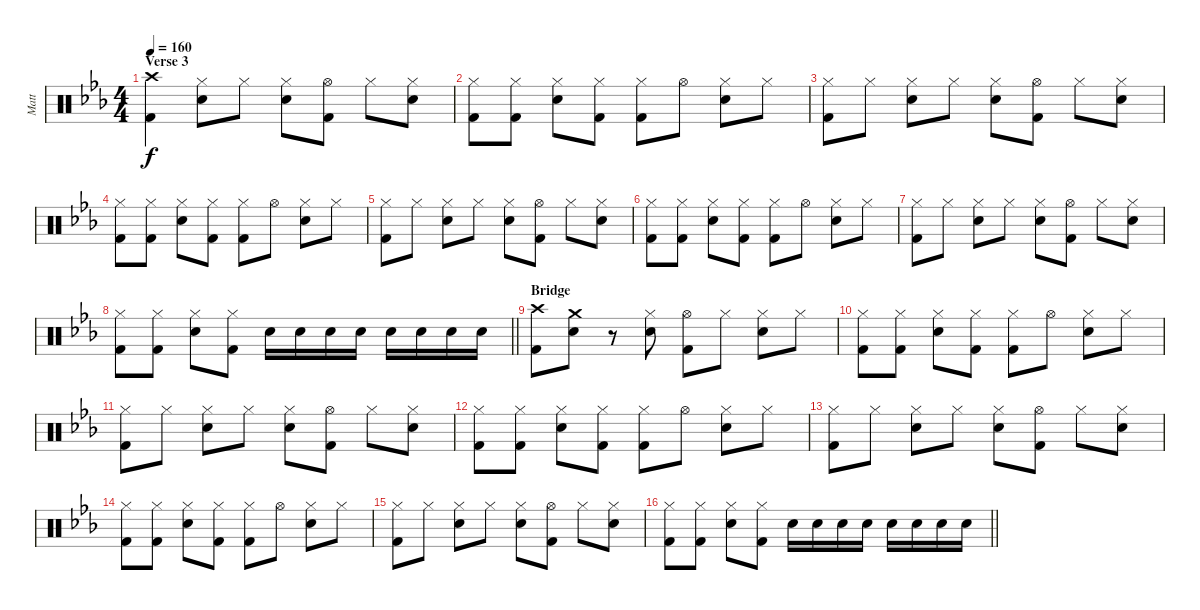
\track ("Matt" "Matt") {instrument percussion}
\staff {score}
\articulation defaults
\ts (4 4)
\section ("" "Verse 3")
\tempo 160
\clef neutral
\ks cminor
("Crash high (hit)" "Kick (hit) 2").4{dy f} ("Hi-Hat (closed)" "Electric Snare (hit)").8 "Hi-Hat (closed)".8 ("Hi-Hat (closed)" "Electric Snare (hit)").8 ("Hi-Hat (open)" "Kick (hit) 2").8 "Hi-Hat (closed)".8 ("Hi-Hat (closed)" "Electric Snare (hit)").8 |
("Hi-Hat (closed)" "Kick (hit) 2").8 ("Hi-Hat (closed)" "Kick (hit) 2").8 ("Hi-Hat (closed)" "Electric Snare (hit)").8 ("Hi-Hat (closed)" "Kick (hit) 2").8 ("Hi-Hat (closed)" "Kick (hit) 2").8 "Hi-Hat (open)".8 ("Hi-Hat (closed)" "Electric Snare (hit)").8 "Hi-Hat (closed)".8 |
("Hi-Hat (closed)" "Kick (hit) 2").8 "Hi-Hat (closed)".8 ("Hi-Hat (closed)" "Electric Snare (hit)").8 "Hi-Hat (closed)".8 ("Hi-Hat (closed)" "Electric Snare (hit)").8 ("Hi-Hat (open)" "Kick (hit) 2").8 "Hi-Hat (closed)".8 ("Hi-Hat (closed)" "Electric Snare (hit)").8 |
("Hi-Hat (closed)" "Kick (hit) 2").8 ("Hi-Hat (closed)" "Kick (hit) 2").8 ("Hi-Hat (closed)" "Electric Snare (hit)").8 ("Hi-Hat (closed)" "Kick (hit) 2").8 ("Hi-Hat (closed)" "Kick (hit) 2").8 "Hi-Hat (open)".8 ("Hi-Hat (closed)" "Electric Snare (hit)").8 "Hi-Hat (closed)".8 |
("Hi-Hat (closed)" "Kick (hit) 2").8 "Hi-Hat (closed)".8 ("Hi-Hat (closed)" "Electric Snare (hit)").8 "Hi-Hat (closed)".8 ("Hi-Hat (closed)" "Electric Snare (hit)").8 ("Hi-Hat (open)" "Kick (hit) 2").8 "Hi-Hat (closed)".8 ("Hi-Hat (closed)" "Electric Snare (hit)").8 |
("Hi-Hat (closed)" "Kick (hit) 2").8 ("Hi-Hat (closed)" "Kick (hit) 2").8 ("Hi-Hat (closed)" "Electric Snare (hit)").8 ("Hi-Hat (closed)" "Kick (hit) 2").8 ("Hi-Hat (closed)" "Kick (hit) 2").8 "Hi-Hat (open)".8 ("Hi-Hat (closed)" "Electric Snare (hit)").8 "Hi-Hat (closed)".8 |
("Hi-Hat (closed)" "Kick (hit) 2").8 "Hi-Hat (closed)".8 ("Hi-Hat (closed)" "Electric Snare (hit)").8 "Hi-Hat (closed)".8 ("Hi-Hat (closed)" "Electric Snare (hit)").8 ("Hi-Hat (open)" "Kick (hit) 2").8 "Hi-Hat (closed)".8 ("Hi-Hat (closed)" "Electric Snare (hit)").8 |
\barLineRight lightlight
("Hi-Hat (closed)" "Kick (hit) 2").8 ("Hi-Hat (closed)" "Kick (hit) 2").8 ("Hi-Hat (closed)" "Electric Snare (hit)").8 ("Hi-Hat (closed)" "Kick (hit) 2").8 "Electric Snare (hit)".16 "Electric Snare (hit)".16 "Electric Snare (hit)".16 "Electric Snare (hit)".16 "Electric Snare (hit)".16 "Electric Snare (hit)".16 "Electric Snare (hit)".16 "Electric Snare (hit)".16 |
\section ("" "Bridge")
("Crash high (hit)" "Kick (hit) 2").8 ("Crash medium (hit)" "Electric Snare (hit)").8 r.8 ("Hi-Hat (closed)" "Electric Snare (hit)").8 ("Hi-Hat (open)" "Kick (hit) 2").8 "Hi-Hat (closed)".8 ("Hi-Hat (closed)" "Electric Snare (hit)").8 "Hi-Hat (closed)".8 |
("Hi-Hat (closed)" "Kick (hit) 2").8 ("Hi-Hat (closed)" "Kick (hit) 2").8 ("Hi-Hat (closed)" "Electric Snare (hit)").8 ("Hi-Hat (closed)" "Kick (hit) 2").8 ("Hi-Hat (closed)" "Kick (hit) 2").8 "Hi-Hat (open)".8 ("Hi-Hat (closed)" "Electric Snare (hit)").8 "Hi-Hat (closed)".8 |
("Hi-Hat (closed)" "Kick (hit) 2").8 "Hi-Hat (closed)".8 ("Hi-Hat (closed)" "Electric Snare (hit)").8 "Hi-Hat (closed)".8 ("Hi-Hat (closed)" "Electric Snare (hit)").8 ("Hi-Hat (open)" "Kick (hit) 2").8 "Hi-Hat (closed)".8 ("Hi-Hat (closed)" "Electric Snare (hit)").8 |
("Hi-Hat (closed)" "Kick (hit) 2").8 ("Hi-Hat (closed)" "Kick (hit) 2").8 ("Hi-Hat (closed)" "Electric Snare (hit)").8 ("Hi-Hat (closed)" "Kick (hit) 2").8 ("Hi-Hat (closed)" "Kick (hit) 2").8 "Hi-Hat (open)".8 ("Hi-Hat (closed)" "Electric Snare (hit)").8 "Hi-Hat (closed)".8 |
("Hi-Hat (closed)" "Kick (hit) 2").8 "Hi-Hat (closed)".8 ("Hi-Hat (closed)" "Electric Snare (hit)").8 "Hi-Hat (closed)".8 ("Hi-Hat (closed)" "Electric Snare (hit)").8 ("Hi-Hat (open)" "Kick (hit) 2").8 "Hi-Hat (closed)".8 ("Hi-Hat (closed)" "Electric Snare (hit)").8 |
("Hi-Hat (closed)" "Kick (hit) 2").8 ("Hi-Hat (closed)" "Kick (hit) 2").8 ("Hi-Hat (closed)" "Electric Snare (hit)").8 ("Hi-Hat (closed)" "Kick (hit) 2").8 ("Hi-Hat (closed)" "Kick (hit) 2").8 "Hi-Hat (open)".8 ("Hi-Hat (closed)" "Electric Snare (hit)").8 "Hi-Hat (closed)".8 |
("Hi-Hat (closed)" "Kick (hit) 2").8 "Hi-Hat (closed)".8 ("Hi-Hat (closed)" "Electric Snare (hit)").8 "Hi-Hat (closed)".8 ("Hi-Hat (closed)" "Electric Snare (hit)").8 ("Hi-Hat (open)" "Kick (hit) 2").8 "Hi-Hat (closed)".8 ("Hi-Hat (closed)" "Electric Snare (hit)").8 |
\barLineRight lightlight
("Hi-Hat (closed)" "Kick (hit) 2").8 ("Hi-Hat (closed)" "Kick (hit) 2").8 ("Hi-Hat (closed)" "Electric Snare (hit)").8 ("Hi-Hat (closed)" "Kick (hit) 2").8 "Electric Snare (hit)".16 "Electric Snare (hit)".16 "Electric Snare (hit)".16 "Electric Snare (hit)".16 "Electric Snare (hit)".16 "Electric Snare (hit)".16 "Electric Snare (hit)".16 "Electric Snare (hit)".16
